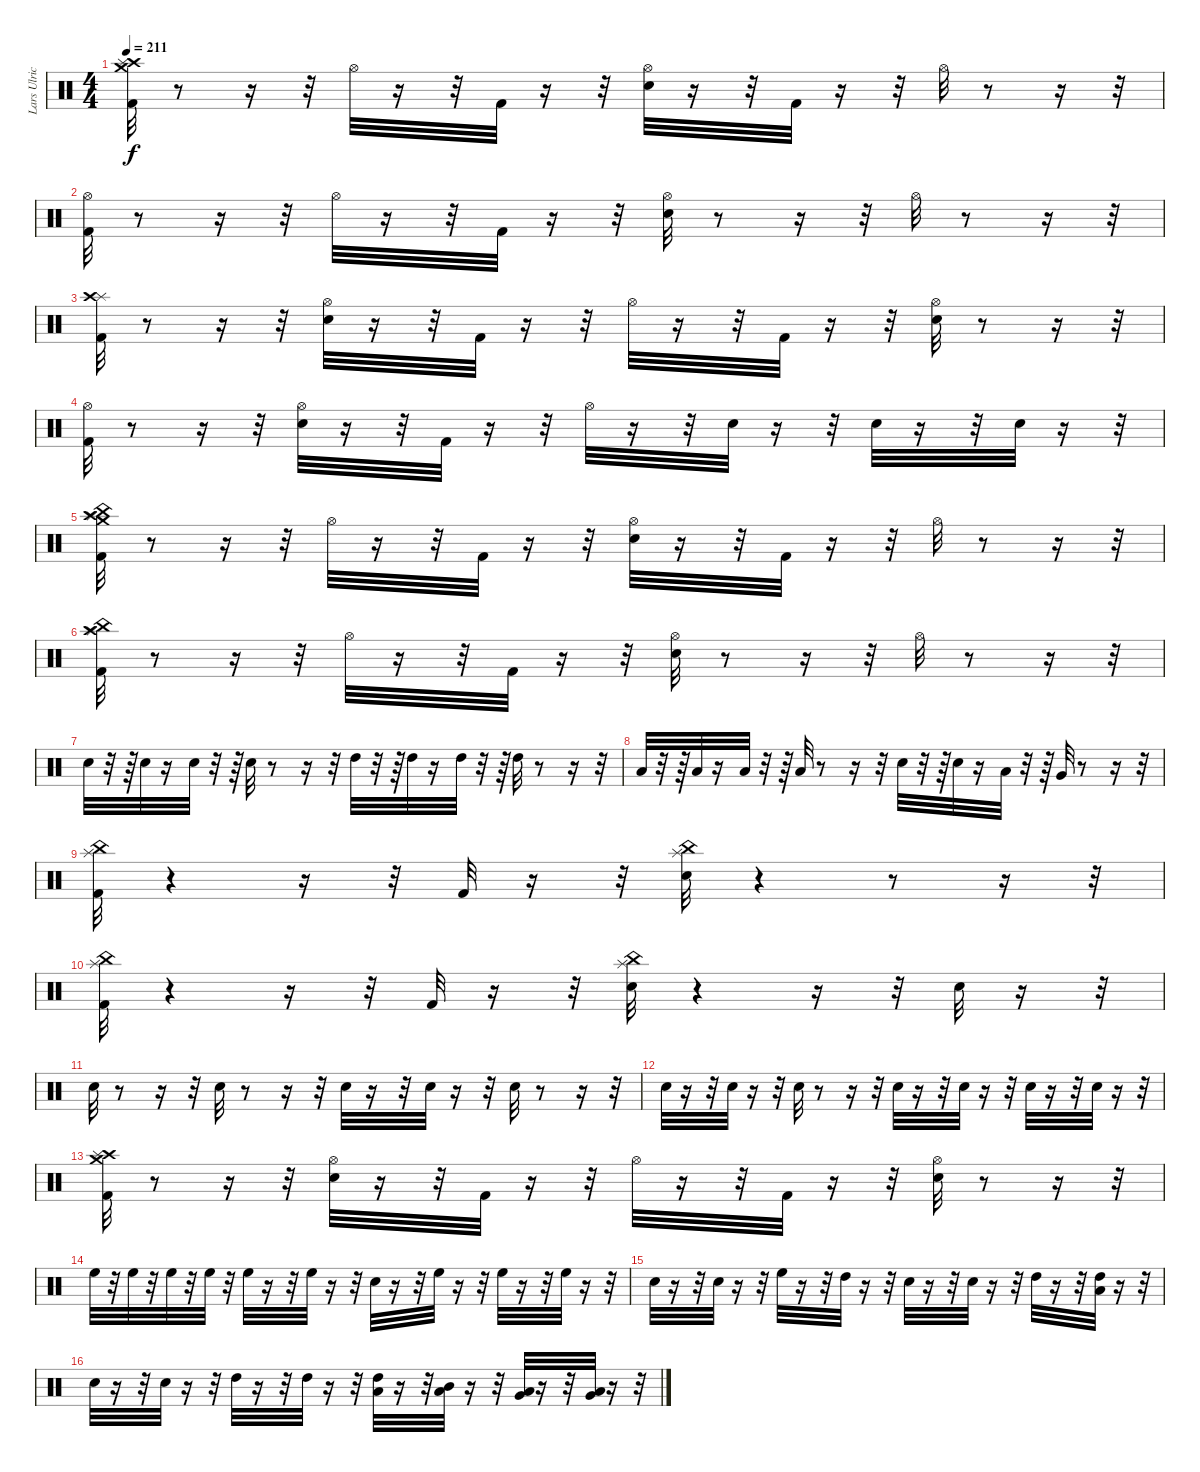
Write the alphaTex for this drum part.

\track ("Lars Ulrich (Drums)" "Lars Ulric") {instrument percussion}
\staff {score}
\articulation defaults
\ts (4 4)
\tempo 211
\clef neutral
\ks c
("Crash high (hit)" "Crash medium (hit)" "Splash (hit)" "Kick (hit) 2").32{dy f} r.8 r.16 r.32 "Hi-Hat (open)".32 r.16 r.32 "Kick (hit) 2".32 r.16 r.32 ("Hi-Hat (open)" "Snare (hit) 2").32 r.16 r.32 "Kick (hit) 2".32 r.16 r.32 "Hi-Hat (open)".32 r.8 r.16 r.32 |
("Hi-Hat (open)" "Kick (hit) 2").32 r.8 r.16 r.32 "Hi-Hat (open)".32 r.16 r.32 "Kick (hit) 2".32 r.16 r.32 ("Hi-Hat (open)" "Snare (hit) 2").32 r.8 r.16 r.32 "Hi-Hat (open)".32 r.8 r.16 r.32 |
("Splash (hit)" "Crash high (hit)" "Kick (hit) 2").32 r.8 r.16 r.32 ("Snare (hit) 2" "Hi-Hat (open)").32 r.16 r.32 "Kick (hit) 2".32 r.16 r.32 "Hi-Hat (open)".32 r.16 r.32 "Kick (hit) 2".32 r.16 r.32 ("Snare (hit) 2" "Hi-Hat (open)").32 r.8 r.16 r.32 |
("Kick (hit) 2" "Hi-Hat (open)").32 r.8 r.16 r.32 ("Snare (hit) 2" "Hi-Hat (open)").32 r.16 r.32 "Kick (hit) 2".32 r.16 r.32 "Hi-Hat (open)".32 r.16 r.32 "Snare (hit) 2".32 r.16 r.32 "Snare (hit) 2".32 r.16 r.32 "Snare (hit) 2".32 r.16 r.32 |
("China (hit)" "Kick (hit) 2" "Crash high (hit)" "Splash (hit)" "Crash medium (hit)").32 r.8 r.16 r.32 "Hi-Hat (open)".32 r.16 r.32 "Kick (hit) 2".32 r.16 r.32 ("Hi-Hat (open)" "Snare (hit) 2").32 r.16 r.32 "Kick (hit) 2".32 r.16 r.32 "Hi-Hat (open)".32 r.8 r.16 r.32 |
("China (hit)" "Splash (hit)" "Crash high (hit)" "Kick (hit) 2").32 r.8 r.16 r.32 "Hi-Hat (open)".32 r.16 r.32 "Kick (hit) 2".32 r.16 r.32 ("Snare (hit) 2" "Hi-Hat (open)").32 r.8 r.16 r.32 "Hi-Hat (open)".32 r.8 r.16 r.32 |
"Snare (hit) 2".32 r.32 r.64 "Snare (hit) 2".32 r.16 "Snare (hit) 2".32 r.32 r.64 "Snare (hit) 2".32 r.8 r.16 r.32 "High Tom (hit)".32 r.32 r.64 "High Tom (hit)".32 r.16 "High Tom (hit)".32 r.32 r.64 "High Tom (hit)".32 r.8 r.16 r.32 |
"Low Tom (hit)".32 r.32 r.64 "Low Tom (hit)".32 r.16 "Low Tom (hit)".32 r.32 r.64 "Low Tom (hit)".32 r.8 r.16 r.32 "Snare (hit) 2".32 r.32 r.64 "Snare (hit) 2".32 r.16 "Low Tom (hit)".32 r.32 r.64 "Very Low Tom (hit)".32 r.8 r.16 r.32 |
("Kick (hit) 2" "China (hit)" "Splash (hit)").32 r.4 r.16 r.32 "Kick (hit) 2".32 r.16 r.32 ("Snare (hit) 2" "China (hit)" "Splash (hit)").32 r.4 r.8 r.16 r.32 |
("Kick (hit) 2" "China (hit)" "Splash (hit)").32 r.4 r.16 r.32 "Kick (hit) 2".32 r.16 r.32 ("Snare (hit) 2" "China (hit)" "Splash (hit)").32 r.4 r.16 r.32 "Snare (hit) 2".32 r.16 r.32 |
"Snare (hit) 2".32 r.8 r.16 r.32 "Snare (hit) 2".32 r.8 r.16 r.32 "Snare (hit) 2".32 r.16 r.32 "Snare (hit) 2".32 r.16 r.32 "Snare (hit) 2".32 r.8 r.16 r.32 |
"Snare (hit) 2".32 r.16 r.32 "Snare (hit) 2".32 r.16 r.32 "Snare (hit) 2".32 r.8 r.16 r.32 "Snare (hit) 2".32 r.16 r.32 "Snare (hit) 2".32 r.16 r.32 "Snare (hit) 2".32 r.16 r.32 "Snare (hit) 2".32 r.16 r.32 |
("Kick (hit) 2" "Crash high (hit)" "Crash medium (hit)" "Splash (hit)").32 r.8 r.16 r.32 ("Snare (hit) 2" "Hi-Hat (open)").32 r.16 r.32 "Kick (hit) 2".32 r.16 r.32 "Hi-Hat (open)".32 r.16 r.32 "Kick (hit) 2".32 r.16 r.32 ("Snare (hit) 2" "Hi-Hat (open)").32 r.8 r.16 r.32 |
"High Floor Tom (hit)".32 r.32 "High Floor Tom (hit)".32 r.32 "High Floor Tom (hit)".32 r.32 "High Floor Tom (hit)".32 r.32 "High Floor Tom (hit)".32 r.16 r.32 "High Floor Tom (hit)".32 r.16 r.32 "Snare (hit) 2".32 r.16 r.32 "High Floor Tom (hit)".32 r.16 r.32 "High Floor Tom (hit)".32 r.16 r.32 "High Floor Tom (hit)".32 r.16 r.32 |
"Snare (hit) 2".32 r.16 r.32 "Snare (hit) 2".32 r.16 r.32 "High Floor Tom (hit)".32 r.16 r.32 "High Tom (hit)".32 r.16 r.32 "Snare (hit) 2".32 r.16 r.32 "Snare (hit) 2".32 r.16 r.32 "High Tom (hit)".32 r.16 r.32 ("Low Tom (hit)" "High Tom (hit)").32 r.16 r.32 |
"Snare (hit) 2".32 r.16 r.32 "Snare (hit) 2".32 r.16 r.32 "High Tom (hit)".32 r.16 r.32 "High Tom (hit)".32 r.16 r.32 ("Low Tom (hit)" "High Tom (hit)").32 r.16 r.32 ("Low Tom (hit)" "Mid Tom (hit)").32 r.16 r.32 ("Low Tom (hit)" "Very Low Tom (hit)").32 r.16 r.32 ("Low Floor Tom (hit)" "Very Low Tom (hit)").32 r.16 r.32
